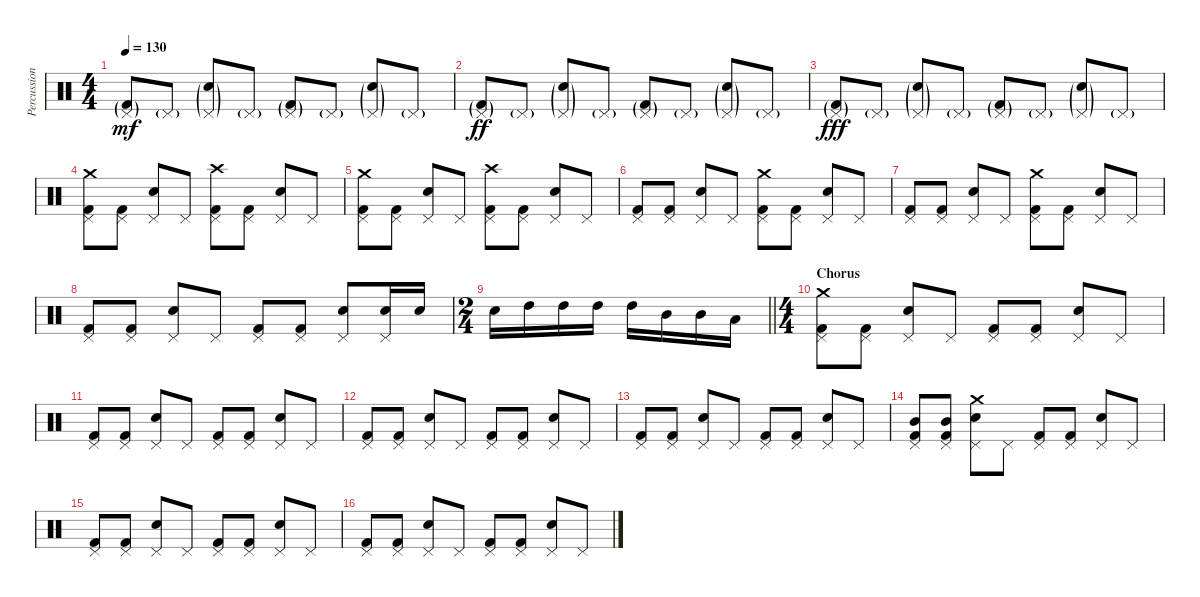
\track ("Percussion" "Percussion") {instrument percussion}
\staff {score}
\articulation defaults
\ts (4 4)
\tempo 130
\clef neutral
\ks c
("Pedal Hi-Hat (hit)"{g} "Kick (hit) 2"{g}).8{dy mf} "Pedal Hi-Hat (hit)"{g}.8 ("Pedal Hi-Hat (hit)"{g} "Electric Snare (hit)"{g}).8 "Pedal Hi-Hat (hit)"{g}.8 ("Pedal Hi-Hat (hit)"{g} "Kick (hit) 2"{g}).8 "Pedal Hi-Hat (hit)"{g}.8 ("Pedal Hi-Hat (hit)"{g} "Electric Snare (hit)"{g}).8 "Pedal Hi-Hat (hit)"{g}.8 |
("Pedal Hi-Hat (hit)"{g} "Kick (hit) 2"{g}).8{dy ff} "Pedal Hi-Hat (hit)"{g}.8 ("Pedal Hi-Hat (hit)"{g} "Electric Snare (hit)"{g}).8 "Pedal Hi-Hat (hit)"{g}.8 ("Pedal Hi-Hat (hit)"{g} "Kick (hit) 2"{g}).8 "Pedal Hi-Hat (hit)"{g}.8 ("Pedal Hi-Hat (hit)"{g} "Electric Snare (hit)"{g}).8 "Pedal Hi-Hat (hit)"{g}.8 |
("Pedal Hi-Hat (hit)"{g} "Kick (hit) 2"{g}).8{dy fff} "Pedal Hi-Hat (hit)"{g}.8 ("Pedal Hi-Hat (hit)"{g} "Electric Snare (hit)"{g}).8 "Pedal Hi-Hat (hit)"{g}.8 ("Pedal Hi-Hat (hit)"{g} "Kick (hit) 2"{g}).8 "Pedal Hi-Hat (hit)"{g}.8 ("Pedal Hi-Hat (hit)"{g} "Electric Snare (hit)"{g}).8 "Pedal Hi-Hat (hit)"{g}.8 |
("Pedal Hi-Hat (hit)" "Crash medium (hit)" "Kick (hit) 2").8 ("Pedal Hi-Hat (hit)" "Kick (hit) 2").8 ("Pedal Hi-Hat (hit)" "Electric Snare (hit)").8 "Pedal Hi-Hat (hit)".8 ("Pedal Hi-Hat (hit)" "Crash high (hit)" "Kick (hit) 2").8 ("Pedal Hi-Hat (hit)" "Kick (hit) 2").8 ("Pedal Hi-Hat (hit)" "Electric Snare (hit)").8 "Pedal Hi-Hat (hit)".8 |
("Pedal Hi-Hat (hit)" "Crash medium (hit)" "Kick (hit) 2").8 ("Pedal Hi-Hat (hit)" "Kick (hit) 2").8 ("Pedal Hi-Hat (hit)" "Electric Snare (hit)").8 "Pedal Hi-Hat (hit)".8 ("Pedal Hi-Hat (hit)" "Crash high (hit)" "Kick (hit) 2").8 ("Pedal Hi-Hat (hit)" "Kick (hit) 2").8 ("Pedal Hi-Hat (hit)" "Electric Snare (hit)").8 "Pedal Hi-Hat (hit)".8 |
("Pedal Hi-Hat (hit)" "Kick (hit) 2").8 ("Pedal Hi-Hat (hit)" "Kick (hit) 2").8 ("Pedal Hi-Hat (hit)" "Electric Snare (hit)").8 "Pedal Hi-Hat (hit)".8 ("Pedal Hi-Hat (hit)" "Crash medium (hit)" "Kick (hit) 2").8 ("Pedal Hi-Hat (hit)" "Kick (hit) 2").8 ("Pedal Hi-Hat (hit)" "Electric Snare (hit)").8 "Pedal Hi-Hat (hit)".8 |
("Pedal Hi-Hat (hit)" "Kick (hit) 2").8 ("Pedal Hi-Hat (hit)" "Kick (hit) 2").8 ("Pedal Hi-Hat (hit)" "Electric Snare (hit)").8 "Pedal Hi-Hat (hit)".8 ("Pedal Hi-Hat (hit)" "Crash medium (hit)" "Kick (hit) 2").8 ("Pedal Hi-Hat (hit)" "Kick (hit) 2").8 ("Pedal Hi-Hat (hit)" "Electric Snare (hit)").8 "Pedal Hi-Hat (hit)".8 |
("Pedal Hi-Hat (hit)" "Kick (hit) 2").8 ("Pedal Hi-Hat (hit)" "Kick (hit) 2").8 ("Pedal Hi-Hat (hit)" "Electric Snare (hit)").8 "Pedal Hi-Hat (hit)".8 ("Pedal Hi-Hat (hit)" "Kick (hit) 2").8 ("Pedal Hi-Hat (hit)" "Kick (hit) 2").8 ("Pedal Hi-Hat (hit)" "Electric Snare (hit)").8 ("Pedal Hi-Hat (hit)" "Electric Snare (hit)").16 "Electric Snare (hit)".16 |
\ts (2 4)
\barLineRight lightlight "Electric Snare (hit)".16 "High Tom (hit)".16 "High Tom (hit)".16 "High Tom (hit)".16 "High Tom (hit)".16 "Mid Tom (hit)".16 "Mid Tom (hit)".16 "Low Tom (hit)".16
|
\ts (4 4)
\section ("" "Chorus")
("Pedal Hi-Hat (hit)" "Crash medium (hit)" "Kick (hit) 2").8 ("Pedal Hi-Hat (hit)" "Kick (hit) 2").8 ("Pedal Hi-Hat (hit)" "Electric Snare (hit)").8 "Pedal Hi-Hat (hit)".8 ("Pedal Hi-Hat (hit)" "Kick (hit) 2").8 ("Pedal Hi-Hat (hit)" "Kick (hit) 2").8 ("Pedal Hi-Hat (hit)" "Electric Snare (hit)").8 "Pedal Hi-Hat (hit)".8 |
("Pedal Hi-Hat (hit)" "Kick (hit) 2").8 ("Pedal Hi-Hat (hit)" "Kick (hit) 2").8 ("Pedal Hi-Hat (hit)" "Electric Snare (hit)").8 "Pedal Hi-Hat (hit)".8 ("Pedal Hi-Hat (hit)" "Kick (hit) 2").8 ("Pedal Hi-Hat (hit)" "Kick (hit) 2").8 ("Pedal Hi-Hat (hit)" "Electric Snare (hit)").8 "Pedal Hi-Hat (hit)".8 |
("Pedal Hi-Hat (hit)" "Kick (hit) 2").8 ("Pedal Hi-Hat (hit)" "Kick (hit) 2").8 ("Pedal Hi-Hat (hit)" "Electric Snare (hit)").8 "Pedal Hi-Hat (hit)".8 ("Pedal Hi-Hat (hit)" "Kick (hit) 2").8 ("Pedal Hi-Hat (hit)" "Kick (hit) 2").8 ("Pedal Hi-Hat (hit)" "Electric Snare (hit)").8 "Pedal Hi-Hat (hit)".8 |
("Pedal Hi-Hat (hit)" "Kick (hit) 2").8 ("Pedal Hi-Hat (hit)" "Kick (hit) 2").8 ("Pedal Hi-Hat (hit)" "Electric Snare (hit)").8 "Pedal Hi-Hat (hit)".8 ("Pedal Hi-Hat (hit)" "Kick (hit) 2").8 ("Pedal Hi-Hat (hit)" "Kick (hit) 2").8 ("Pedal Hi-Hat (hit)" "Electric Snare (hit)").8 "Pedal Hi-Hat (hit)".8 |
("Pedal Hi-Hat (hit)" "Mid Tom (hit)" "Kick (hit) 2").8 ("Pedal Hi-Hat (hit)" "Mid Tom (hit)" "Kick (hit) 2").8 ("Pedal Hi-Hat (hit)" "Crash medium (hit)" "Electric Snare (hit)").8 "Pedal Hi-Hat (hit)".8 ("Pedal Hi-Hat (hit)" "Kick (hit) 2").8 ("Pedal Hi-Hat (hit)" "Kick (hit) 2").8 ("Pedal Hi-Hat (hit)" "Electric Snare (hit)").8 "Pedal Hi-Hat (hit)".8 |
("Pedal Hi-Hat (hit)" "Kick (hit) 2").8 ("Pedal Hi-Hat (hit)" "Kick (hit) 2").8 ("Pedal Hi-Hat (hit)" "Electric Snare (hit)").8 "Pedal Hi-Hat (hit)".8 ("Pedal Hi-Hat (hit)" "Kick (hit) 2").8 ("Pedal Hi-Hat (hit)" "Kick (hit) 2").8 ("Pedal Hi-Hat (hit)" "Electric Snare (hit)").8 "Pedal Hi-Hat (hit)".8 |
("Pedal Hi-Hat (hit)" "Kick (hit) 2").8 ("Pedal Hi-Hat (hit)" "Kick (hit) 2").8 ("Pedal Hi-Hat (hit)" "Electric Snare (hit)").8 "Pedal Hi-Hat (hit)".8 ("Pedal Hi-Hat (hit)" "Kick (hit) 2").8 ("Pedal Hi-Hat (hit)" "Kick (hit) 2").8 ("Pedal Hi-Hat (hit)" "Electric Snare (hit)").8 "Pedal Hi-Hat (hit)".8
